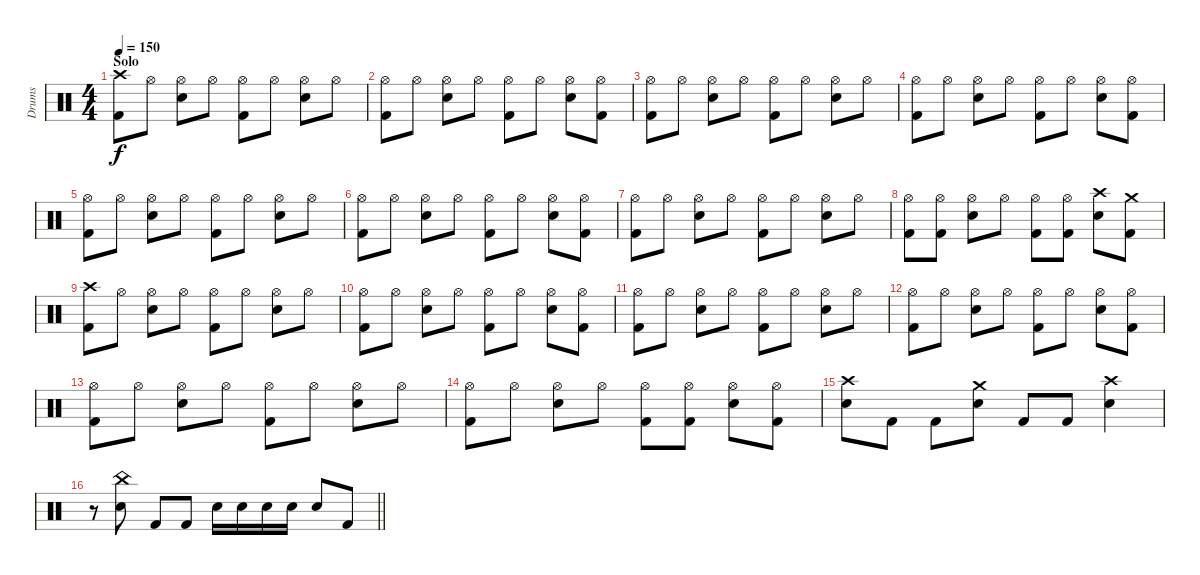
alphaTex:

\track ("Drums" "Drums") {instrument percussion}
\staff {score}
\articulation defaults
\ts (4 4)
\section ("" "Solo")
\tempo 150
\clef neutral
\ks c
("Crash high (hit)" "Kick (hit) 2").8{dy f} "Hi-Hat (open)".8 ("Hi-Hat (open)" "Electric Snare (hit)").8 "Hi-Hat (open)".8 ("Hi-Hat (open)" "Kick (hit) 2").8 "Hi-Hat (open)".8 ("Hi-Hat (open)" "Electric Snare (hit)").8 "Hi-Hat (open)".8 |
("Hi-Hat (open)" "Kick (hit) 2").8 "Hi-Hat (open)".8 ("Hi-Hat (open)" "Electric Snare (hit)").8 "Hi-Hat (open)".8 ("Hi-Hat (open)" "Kick (hit) 2").8 "Hi-Hat (open)".8 ("Hi-Hat (open)" "Electric Snare (hit)").8 ("Hi-Hat (open)" "Kick (hit) 2").8 |
("Hi-Hat (open)" "Kick (hit) 2").8 "Hi-Hat (open)".8 ("Hi-Hat (open)" "Electric Snare (hit)").8 "Hi-Hat (open)".8 ("Hi-Hat (open)" "Kick (hit) 2").8 "Hi-Hat (open)".8 ("Hi-Hat (open)" "Electric Snare (hit)").8 "Hi-Hat (open)".8 |
("Hi-Hat (open)" "Kick (hit) 2").8 "Hi-Hat (open)".8 ("Hi-Hat (open)" "Electric Snare (hit)").8 "Hi-Hat (open)".8 ("Hi-Hat (open)" "Kick (hit) 2").8 "Hi-Hat (open)".8 ("Hi-Hat (open)" "Electric Snare (hit)").8 ("Hi-Hat (open)" "Kick (hit) 2").8 |
("Hi-Hat (open)" "Kick (hit) 2").8 "Hi-Hat (open)".8 ("Hi-Hat (open)" "Electric Snare (hit)").8 "Hi-Hat (open)".8 ("Hi-Hat (open)" "Kick (hit) 2").8 "Hi-Hat (open)".8 ("Hi-Hat (open)" "Electric Snare (hit)").8 "Hi-Hat (open)".8 |
("Hi-Hat (open)" "Kick (hit) 2").8 "Hi-Hat (open)".8 ("Hi-Hat (open)" "Electric Snare (hit)").8 "Hi-Hat (open)".8 ("Hi-Hat (open)" "Kick (hit) 2").8 "Hi-Hat (open)".8 ("Hi-Hat (open)" "Electric Snare (hit)").8 ("Hi-Hat (open)" "Kick (hit) 2").8 |
("Hi-Hat (open)" "Kick (hit) 2").8 "Hi-Hat (open)".8 ("Hi-Hat (open)" "Electric Snare (hit)").8 "Hi-Hat (open)".8 ("Hi-Hat (open)" "Kick (hit) 2").8 "Hi-Hat (open)".8 ("Hi-Hat (open)" "Electric Snare (hit)").8 "Hi-Hat (open)".8 |
("Hi-Hat (open)" "Kick (hit) 2").8 ("Hi-Hat (open)" "Kick (hit) 2").8 ("Hi-Hat (open)" "Electric Snare (hit)").8 "Hi-Hat (open)".8 ("Hi-Hat (open)" "Kick (hit) 2").8 ("Hi-Hat (open)" "Kick (hit) 2").8 ("Crash high (hit)" "Electric Snare (hit)").8 ("Crash medium (hit)" "Kick (hit) 2").8 |
("Crash high (hit)" "Kick (hit) 2").8 "Hi-Hat (open)".8 ("Hi-Hat (open)" "Electric Snare (hit)").8 "Hi-Hat (open)".8 ("Hi-Hat (open)" "Kick (hit) 2").8 "Hi-Hat (open)".8 ("Hi-Hat (open)" "Electric Snare (hit)").8 "Hi-Hat (open)".8 |
("Hi-Hat (open)" "Kick (hit) 2").8 "Hi-Hat (open)".8 ("Hi-Hat (open)" "Electric Snare (hit)").8 "Hi-Hat (open)".8 ("Hi-Hat (open)" "Kick (hit) 2").8 "Hi-Hat (open)".8 ("Hi-Hat (open)" "Electric Snare (hit)").8 ("Hi-Hat (open)" "Kick (hit) 2").8 |
("Hi-Hat (open)" "Kick (hit) 2").8 "Hi-Hat (open)".8 ("Hi-Hat (open)" "Electric Snare (hit)").8 "Hi-Hat (open)".8 ("Hi-Hat (open)" "Kick (hit) 2").8 "Hi-Hat (open)".8 ("Hi-Hat (open)" "Electric Snare (hit)").8 "Hi-Hat (open)".8 |
("Hi-Hat (open)" "Kick (hit) 2").8 "Hi-Hat (open)".8 ("Hi-Hat (open)" "Electric Snare (hit)").8 "Hi-Hat (open)".8 ("Hi-Hat (open)" "Kick (hit) 2").8 "Hi-Hat (open)".8 ("Hi-Hat (open)" "Electric Snare (hit)").8 ("Hi-Hat (open)" "Kick (hit) 2").8 |
("Hi-Hat (open)" "Kick (hit) 2").8 "Hi-Hat (open)".8 ("Hi-Hat (open)" "Electric Snare (hit)").8 "Hi-Hat (open)".8 ("Hi-Hat (open)" "Kick (hit) 2").8 "Hi-Hat (open)".8 ("Hi-Hat (open)" "Electric Snare (hit)").8 "Hi-Hat (open)".8 |
("Hi-Hat (open)" "Kick (hit) 2").8 "Hi-Hat (open)".8 ("Hi-Hat (open)" "Electric Snare (hit)").8 "Hi-Hat (open)".8 ("Hi-Hat (open)" "Kick (hit) 2").8 ("Hi-Hat (open)" "Kick (hit) 2").8 ("Hi-Hat (open)" "Electric Snare (hit)").8 ("Hi-Hat (open)" "Kick (hit) 2").8 |
("Crash high (hit)" "Electric Snare (hit)").8 "Kick (hit) 2".8 "Kick (hit) 2".8 ("Crash medium (hit)" "Electric Snare (hit)").8 "Kick (hit) 2".8 "Kick (hit) 2".8 ("Crash high (hit)" "Electric Snare (hit)").4 |
\barLineRight lightlight
r.8 ("China (hit)" "Electric Snare (hit)").8 "Kick (hit) 2".8 "Kick (hit) 2".8 "Electric Snare (hit)".16 "Electric Snare (hit)".16 "Electric Snare (hit)".16 "Electric Snare (hit)".16 "Electric Snare (hit)".8 "Kick (hit) 2".8
